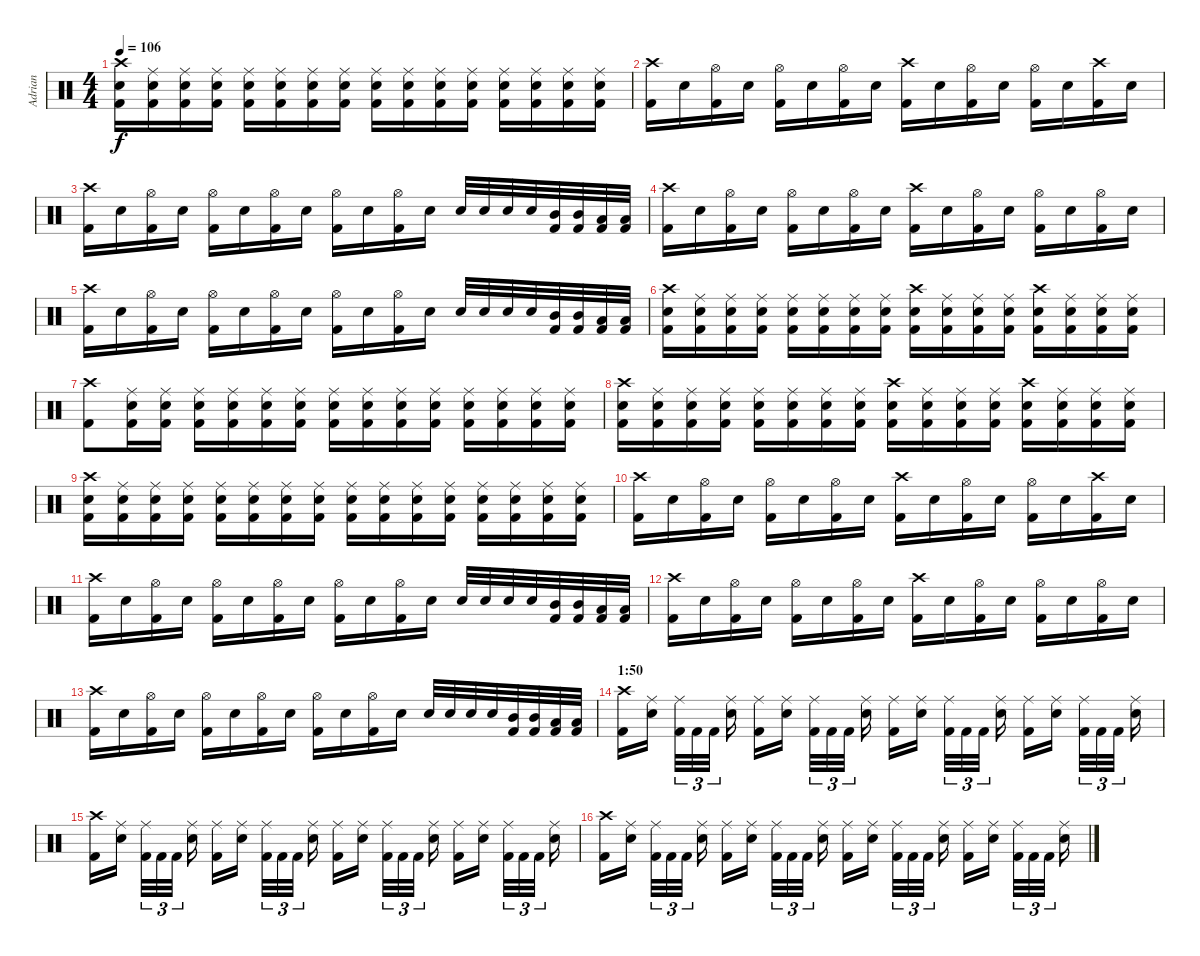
\track ("Adrian" "Adrian") {instrument percussion}
\staff {score}
\articulation defaults
\ts (4 4)
\tempo 106
\clef neutral
\ks c
("Kick (hit) 2" "Snare (hit) 2" "Crash high (hit)").16{dy f} ("Kick (hit) 2" "Snare (hit) 2" "Ride (middle)").16 ("Kick (hit) 2" "Snare (hit) 2" "Ride (middle)").16 ("Kick (hit) 2" "Snare (hit) 2" "Ride (middle)").16 ("Kick (hit) 2" "Snare (hit) 2" "Ride (middle)").16 ("Kick (hit) 2" "Snare (hit) 2" "Ride (middle)").16 ("Kick (hit) 2" "Snare (hit) 2" "Ride (middle)").16 ("Kick (hit) 2" "Snare (hit) 2" "Ride (middle)").16 ("Kick (hit) 2" "Snare (hit) 2" "Ride (middle)").16 ("Kick (hit) 2" "Snare (hit) 2" "Ride (middle)").16 ("Kick (hit) 2" "Snare (hit) 2" "Ride (middle)").16 ("Kick (hit) 2" "Snare (hit) 2" "Ride (middle)").16 ("Kick (hit) 2" "Snare (hit) 2" "Ride (middle)").16 ("Kick (hit) 2" "Snare (hit) 2" "Ride (middle)").16 ("Kick (hit) 2" "Snare (hit) 2" "Ride (middle)").16 ("Kick (hit) 2" "Snare (hit) 2" "Ride (middle)").16 |
("Kick (hit) 2" "Crash high (hit)").16 "Snare (hit) 2".16 ("Kick (hit) 2" "Hi-Hat (open)").16 "Snare (hit) 2".16 ("Kick (hit) 2" "Hi-Hat (open)").16 "Snare (hit) 2".16 ("Kick (hit) 2" "Hi-Hat (open)").16 "Snare (hit) 2".16 ("Kick (hit) 2" "Crash high (hit)").16 "Snare (hit) 2".16 ("Kick (hit) 2" "Hi-Hat (open)").16 "Snare (hit) 2".16 ("Kick (hit) 2" "Hi-Hat (open)").16 "Snare (hit) 2".16 ("Kick (hit) 2" "Crash high (hit)").16 "Snare (hit) 2".16 |
("Kick (hit) 2" "Crash high (hit)").16 "Snare (hit) 2".16 ("Kick (hit) 2" "Hi-Hat (open)").16 "Snare (hit) 2".16 ("Kick (hit) 2" "Hi-Hat (open)").16 "Snare (hit) 2".16 ("Kick (hit) 2" "Hi-Hat (open)").16 "Snare (hit) 2".16 ("Kick (hit) 2" "Hi-Hat (open)").16 "Snare (hit) 2".16 ("Kick (hit) 2" "Hi-Hat (open)").16 "Snare (hit) 2".16 "Snare (hit) 2".32 "Snare (hit) 2".32 "Snare (hit) 2".32 "Snare (hit) 2".32 ("Kick (hit) 2" "Mid Tom (hit)").32 ("Kick (hit) 2" "Mid Tom (hit)").32 ("Kick (hit) 2" "Low Tom (hit)").32 ("Kick (hit) 2" "Low Tom (hit)").32 |
("Kick (hit) 2" "Crash high (hit)").16 "Snare (hit) 2".16 ("Kick (hit) 2" "Hi-Hat (open)").16 "Snare (hit) 2".16 ("Kick (hit) 2" "Hi-Hat (open)").16 "Snare (hit) 2".16 ("Kick (hit) 2" "Hi-Hat (open)").16 "Snare (hit) 2".16 ("Kick (hit) 2" "Crash high (hit)").16 "Snare (hit) 2".16 ("Kick (hit) 2" "Hi-Hat (open)").16 "Snare (hit) 2".16 ("Kick (hit) 2" "Hi-Hat (open)").16 "Snare (hit) 2".16 ("Kick (hit) 2" "Hi-Hat (open)").16 "Snare (hit) 2".16 |
("Kick (hit) 2" "Crash high (hit)").16 "Snare (hit) 2".16 ("Kick (hit) 2" "Hi-Hat (open)").16 "Snare (hit) 2".16 ("Kick (hit) 2" "Hi-Hat (open)").16 "Snare (hit) 2".16 ("Kick (hit) 2" "Hi-Hat (open)").16 "Snare (hit) 2".16 ("Kick (hit) 2" "Hi-Hat (open)").16 "Snare (hit) 2".16 ("Kick (hit) 2" "Hi-Hat (open)").16 "Snare (hit) 2".16 "Snare (hit) 2".32 "Snare (hit) 2".32 "Snare (hit) 2".32 "Snare (hit) 2".32 ("Kick (hit) 2" "Mid Tom (hit)").32 ("Kick (hit) 2" "Mid Tom (hit)").32 ("Kick (hit) 2" "Low Tom (hit)").32 ("Kick (hit) 2" "Low Tom (hit)").32 |
("Kick (hit) 2" "Snare (hit) 2" "Crash high (hit)").16 ("Kick (hit) 2" "Snare (hit) 2" "Ride (middle)").16 ("Kick (hit) 2" "Snare (hit) 2" "Ride (middle)").16 ("Kick (hit) 2" "Snare (hit) 2" "Ride (middle)").16 ("Kick (hit) 2" "Snare (hit) 2" "Ride (middle)").16 ("Kick (hit) 2" "Snare (hit) 2" "Ride (middle)").16 ("Kick (hit) 2" "Snare (hit) 2" "Ride (middle)").16 ("Kick (hit) 2" "Snare (hit) 2" "Ride (middle)").16 ("Kick (hit) 2" "Snare (hit) 2" "Crash high (hit)").16 ("Kick (hit) 2" "Snare (hit) 2" "Ride (middle)").16 ("Kick (hit) 2" "Snare (hit) 2" "Ride (middle)").16 ("Kick (hit) 2" "Snare (hit) 2" "Ride (middle)").16 ("Kick (hit) 2" "Snare (hit) 2" "Crash high (hit)").16 ("Kick (hit) 2" "Snare (hit) 2" "Ride (middle)").16 ("Kick (hit) 2" "Snare (hit) 2" "Ride (middle)").16 ("Kick (hit) 2" "Snare (hit) 2" "Ride (middle)").16 |
("Kick (hit) 2" "Crash high (hit)").8 ("Kick (hit) 2" "Snare (hit) 2" "Ride (middle)").16 ("Kick (hit) 2" "Snare (hit) 2" "Ride (middle)").16 ("Kick (hit) 2" "Snare (hit) 2" "Ride (middle)").16 ("Kick (hit) 2" "Snare (hit) 2" "Ride (middle)").16 ("Kick (hit) 2" "Snare (hit) 2" "Ride (middle)").16 ("Kick (hit) 2" "Snare (hit) 2" "Ride (middle)").16 ("Kick (hit) 2" "Snare (hit) 2" "Ride (middle)").16 ("Kick (hit) 2" "Snare (hit) 2" "Ride (middle)").16 ("Kick (hit) 2" "Snare (hit) 2" "Ride (middle)").16 ("Kick (hit) 2" "Snare (hit) 2" "Ride (middle)").16 ("Kick (hit) 2" "Snare (hit) 2" "Ride (middle)").16 ("Kick (hit) 2" "Snare (hit) 2" "Ride (middle)").16 ("Kick (hit) 2" "Snare (hit) 2" "Ride (middle)").16 ("Kick (hit) 2" "Snare (hit) 2" "Ride (middle)").16 |
("Kick (hit) 2" "Snare (hit) 2" "Crash high (hit)").16 ("Kick (hit) 2" "Snare (hit) 2" "Ride (middle)").16 ("Kick (hit) 2" "Snare (hit) 2" "Ride (middle)").16 ("Kick (hit) 2" "Snare (hit) 2" "Ride (middle)").16 ("Kick (hit) 2" "Snare (hit) 2" "Ride (middle)").16 ("Kick (hit) 2" "Snare (hit) 2" "Ride (middle)").16 ("Kick (hit) 2" "Snare (hit) 2" "Ride (middle)").16 ("Kick (hit) 2" "Snare (hit) 2" "Ride (middle)").16 ("Kick (hit) 2" "Snare (hit) 2" "Crash high (hit)").16 ("Kick (hit) 2" "Snare (hit) 2" "Ride (middle)").16 ("Kick (hit) 2" "Snare (hit) 2" "Ride (middle)").16 ("Kick (hit) 2" "Snare (hit) 2" "Ride (middle)").16 ("Kick (hit) 2" "Snare (hit) 2" "Crash high (hit)").16 ("Kick (hit) 2" "Snare (hit) 2" "Ride (middle)").16 ("Kick (hit) 2" "Snare (hit) 2" "Ride (middle)").16 ("Kick (hit) 2" "Snare (hit) 2" "Ride (middle)").16 |
("Kick (hit) 2" "Snare (hit) 2" "Crash high (hit)").16 ("Kick (hit) 2" "Snare (hit) 2" "Ride (middle)").16 ("Kick (hit) 2" "Snare (hit) 2" "Ride (middle)").16 ("Kick (hit) 2" "Snare (hit) 2" "Ride (middle)").16 ("Kick (hit) 2" "Snare (hit) 2" "Ride (middle)").16 ("Kick (hit) 2" "Snare (hit) 2" "Ride (middle)").16 ("Kick (hit) 2" "Snare (hit) 2" "Ride (middle)").16 ("Kick (hit) 2" "Snare (hit) 2" "Ride (middle)").16 ("Kick (hit) 2" "Snare (hit) 2" "Ride (middle)").16 ("Kick (hit) 2" "Snare (hit) 2" "Ride (middle)").16 ("Kick (hit) 2" "Snare (hit) 2" "Ride (middle)").16 ("Kick (hit) 2" "Snare (hit) 2" "Ride (middle)").16 ("Kick (hit) 2" "Snare (hit) 2" "Ride (middle)").16 ("Kick (hit) 2" "Snare (hit) 2" "Ride (middle)").16 ("Kick (hit) 2" "Snare (hit) 2" "Ride (middle)").16 ("Kick (hit) 2" "Snare (hit) 2" "Ride (middle)").16 |
("Kick (hit) 2" "Crash high (hit)").16 "Snare (hit) 2".16 ("Kick (hit) 2" "Hi-Hat (open)").16 "Snare (hit) 2".16 ("Kick (hit) 2" "Hi-Hat (open)").16 "Snare (hit) 2".16 ("Kick (hit) 2" "Hi-Hat (open)").16 "Snare (hit) 2".16 ("Kick (hit) 2" "Crash high (hit)").16 "Snare (hit) 2".16 ("Kick (hit) 2" "Hi-Hat (open)").16 "Snare (hit) 2".16 ("Kick (hit) 2" "Hi-Hat (open)").16 "Snare (hit) 2".16 ("Kick (hit) 2" "Crash high (hit)").16 "Snare (hit) 2".16 |
("Kick (hit) 2" "Crash high (hit)").16 "Snare (hit) 2".16 ("Kick (hit) 2" "Hi-Hat (open)").16 "Snare (hit) 2".16 ("Kick (hit) 2" "Hi-Hat (open)").16 "Snare (hit) 2".16 ("Kick (hit) 2" "Hi-Hat (open)").16 "Snare (hit) 2".16 ("Kick (hit) 2" "Hi-Hat (open)").16 "Snare (hit) 2".16 ("Kick (hit) 2" "Hi-Hat (open)").16 "Snare (hit) 2".16 "Snare (hit) 2".32 "Snare (hit) 2".32 "Snare (hit) 2".32 "Snare (hit) 2".32 ("Kick (hit) 2" "Mid Tom (hit)").32 ("Kick (hit) 2" "Mid Tom (hit)").32 ("Kick (hit) 2" "Low Tom (hit)").32 ("Kick (hit) 2" "Low Tom (hit)").32 |
("Kick (hit) 2" "Crash high (hit)").16 "Snare (hit) 2".16 ("Kick (hit) 2" "Hi-Hat (open)").16 "Snare (hit) 2".16 ("Kick (hit) 2" "Hi-Hat (open)").16 "Snare (hit) 2".16 ("Kick (hit) 2" "Hi-Hat (open)").16 "Snare (hit) 2".16 ("Kick (hit) 2" "Crash high (hit)").16 "Snare (hit) 2".16 ("Kick (hit) 2" "Hi-Hat (open)").16 "Snare (hit) 2".16 ("Kick (hit) 2" "Hi-Hat (open)").16 "Snare (hit) 2".16 ("Kick (hit) 2" "Hi-Hat (open)").16 "Snare (hit) 2".16 |
("Kick (hit) 2" "Crash high (hit)").16 "Snare (hit) 2".16 ("Kick (hit) 2" "Hi-Hat (open)").16 "Snare (hit) 2".16 ("Kick (hit) 2" "Hi-Hat (open)").16 "Snare (hit) 2".16 ("Kick (hit) 2" "Hi-Hat (open)").16 "Snare (hit) 2".16 ("Kick (hit) 2" "Hi-Hat (open)").16 "Snare (hit) 2".16 ("Kick (hit) 2" "Hi-Hat (open)").16 "Snare (hit) 2".16 "Snare (hit) 2".32 "Snare (hit) 2".32 "Snare (hit) 2".32 "Snare (hit) 2".32 ("Kick (hit) 2" "Mid Tom (hit)").32 ("Kick (hit) 2" "Mid Tom (hit)").32 ("Kick (hit) 2" "Low Tom (hit)").32 ("Kick (hit) 2" "Low Tom (hit)").32 |
\section ("" "1:50")
("Kick (hit) 2" "Crash high (hit)").16 ("Snare (hit) 2" "Ride (middle)").16 ("Kick (hit) 2" "Ride (middle)").32{tu (3 2)} "Kick (hit) 2".32{tu (3 2)} "Kick (hit) 2".32{tu (3 2)} ("Snare (hit) 2" "Ride (middle)").16 ("Kick (hit) 2" "Ride (middle)").16 ("Snare (hit) 2" "Ride (middle)").16 ("Kick (hit) 2" "Ride (middle)").32{tu (3 2)} "Kick (hit) 2".32{tu (3 2)} "Kick (hit) 2".32{tu (3 2)} ("Snare (hit) 2" "Ride (middle)").16 ("Kick (hit) 2" "Ride (middle)").16 ("Snare (hit) 2" "Ride (middle)").16 ("Kick (hit) 2" "Ride (middle)").32{tu (3 2)} "Kick (hit) 2".32{tu (3 2)} "Kick (hit) 2".32{tu (3 2)} ("Snare (hit) 2" "Ride (middle)").16 ("Kick (hit) 2" "Ride (middle)").16 ("Snare (hit) 2" "Ride (middle)").16 ("Kick (hit) 2" "Ride (middle)").32{tu (3 2)} "Kick (hit) 2".32{tu (3 2)} "Kick (hit) 2".32{tu (3 2)} ("Snare (hit) 2" "Ride (middle)").16 |
("Kick (hit) 2" "Crash high (hit)").16 ("Snare (hit) 2" "Ride (middle)").16 ("Kick (hit) 2" "Ride (middle)").32{tu (3 2)} "Kick (hit) 2".32{tu (3 2)} "Kick (hit) 2".32{tu (3 2)} ("Snare (hit) 2" "Ride (middle)").16 ("Kick (hit) 2" "Ride (middle)").16 ("Snare (hit) 2" "Ride (middle)").16 ("Kick (hit) 2" "Ride (middle)").32{tu (3 2)} "Kick (hit) 2".32{tu (3 2)} "Kick (hit) 2".32{tu (3 2)} ("Snare (hit) 2" "Ride (middle)").16 ("Kick (hit) 2" "Ride (middle)").16 ("Snare (hit) 2" "Ride (middle)").16 ("Kick (hit) 2" "Ride (middle)").32{tu (3 2)} "Kick (hit) 2".32{tu (3 2)} "Kick (hit) 2".32{tu (3 2)} ("Snare (hit) 2" "Ride (middle)").16 ("Kick (hit) 2" "Ride (middle)").16 ("Snare (hit) 2" "Ride (middle)").16 ("Kick (hit) 2" "Ride (middle)").32{tu (3 2)} "Kick (hit) 2".32{tu (3 2)} "Kick (hit) 2".32{tu (3 2)} ("Snare (hit) 2" "Ride (middle)").16 |
("Kick (hit) 2" "Crash high (hit)").16 ("Snare (hit) 2" "Ride (middle)").16 ("Kick (hit) 2" "Ride (middle)").32{tu (3 2)} "Kick (hit) 2".32{tu (3 2)} "Kick (hit) 2".32{tu (3 2)} ("Snare (hit) 2" "Ride (middle)").16 ("Kick (hit) 2" "Ride (middle)").16 ("Snare (hit) 2" "Ride (middle)").16 ("Kick (hit) 2" "Ride (middle)").32{tu (3 2)} "Kick (hit) 2".32{tu (3 2)} "Kick (hit) 2".32{tu (3 2)} ("Snare (hit) 2" "Ride (middle)").16 ("Kick (hit) 2" "Ride (middle)").16 ("Snare (hit) 2" "Ride (middle)").16 ("Kick (hit) 2" "Ride (middle)").32{tu (3 2)} "Kick (hit) 2".32{tu (3 2)} "Kick (hit) 2".32{tu (3 2)} ("Snare (hit) 2" "Ride (middle)").16 ("Kick (hit) 2" "Ride (middle)").16 ("Snare (hit) 2" "Ride (middle)").16 ("Kick (hit) 2" "Ride (middle)").32{tu (3 2)} "Kick (hit) 2".32{tu (3 2)} "Kick (hit) 2".32{tu (3 2)} ("Snare (hit) 2" "Ride (middle)").16
